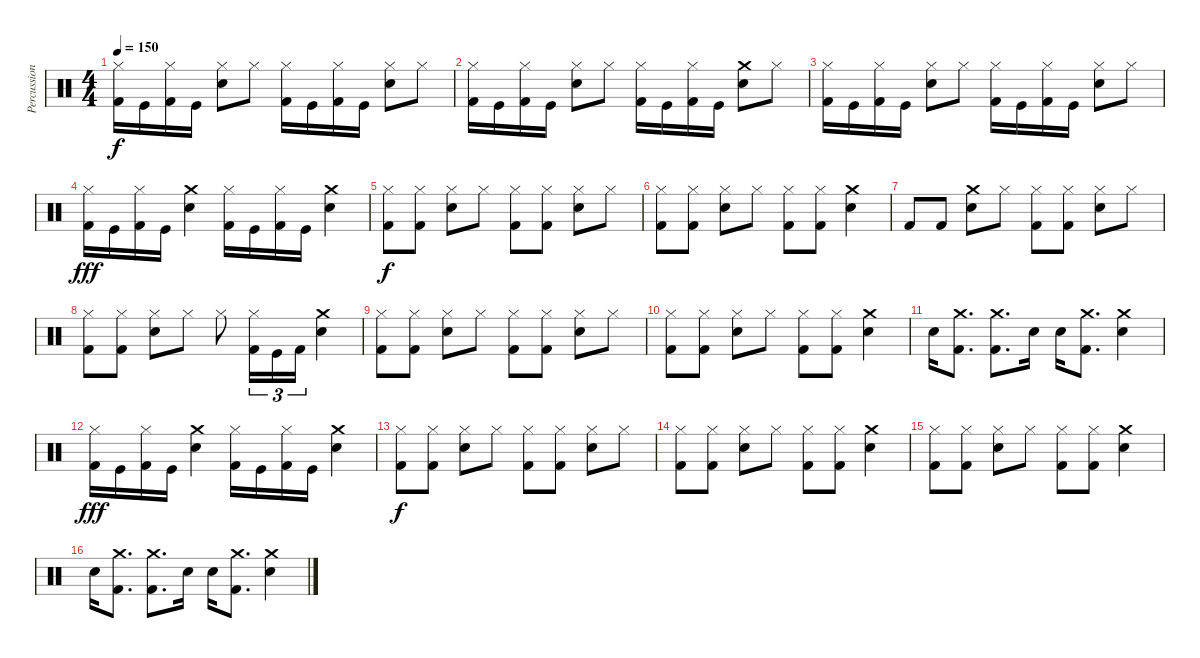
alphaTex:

\track ("Percussion" "Percussion") {instrument percussion}
\staff {score}
\articulation defaults
\ts (4 4)
\tempo 150
\clef neutral
\ks c
("Hi-Hat (closed)" "Kick (hit) 2").16{dy f} "Kick (hit)".16 ("Hi-Hat (closed)" "Kick (hit) 2").16 "Kick (hit)".16 ("Snare (hit) 2" "Hi-Hat (closed)").8 "Hi-Hat (closed)".8 ("Hi-Hat (closed)" "Kick (hit) 2").16 "Kick (hit)".16 ("Hi-Hat (closed)" "Kick (hit) 2").16 "Kick (hit)".16 ("Snare (hit) 2" "Hi-Hat (closed)").8 "Hi-Hat (closed)".8 |
("Hi-Hat (closed)" "Kick (hit) 2").16 "Kick (hit)".16 ("Hi-Hat (closed)" "Kick (hit) 2").16 "Kick (hit)".16 ("Snare (hit) 2" "Hi-Hat (closed)").8 "Hi-Hat (closed)".8 ("Hi-Hat (closed)" "Kick (hit) 2").16 "Kick (hit)".16 ("Hi-Hat (closed)" "Kick (hit) 2").16 "Kick (hit)".16 ("Snare (hit) 2" "Crash medium (hit)").8 "Hi-Hat (closed)".8 |
("Hi-Hat (closed)" "Kick (hit) 2").16 "Kick (hit)".16 ("Hi-Hat (closed)" "Kick (hit) 2").16 "Kick (hit)".16 ("Snare (hit) 2" "Hi-Hat (closed)").8 "Hi-Hat (closed)".8 ("Hi-Hat (closed)" "Kick (hit) 2").16 "Kick (hit)".16 ("Hi-Hat (closed)" "Kick (hit) 2").16 "Kick (hit)".16 ("Snare (hit) 2" "Hi-Hat (closed)").8 "Hi-Hat (closed)".8 |
("Kick (hit) 2" "Hi-Hat (closed)").16{dy fff} "Kick (hit)".16 ("Kick (hit) 2" "Hi-Hat (closed)").16 "Kick (hit)".16 ("Snare (hit) 2" "Crash medium (hit)").4 ("Kick (hit) 2" "Hi-Hat (closed)").16 "Kick (hit)".16 ("Kick (hit) 2" "Hi-Hat (closed)").16 "Kick (hit)".16 ("Crash medium (hit)" "Snare (hit) 2").4 |
("Hi-Hat (closed)" "Kick (hit) 2").8{dy f} ("Hi-Hat (closed)" "Kick (hit) 2").8 ("Snare (hit) 2" "Hi-Hat (closed)").8 "Hi-Hat (closed)".8 ("Hi-Hat (closed)" "Kick (hit) 2").8 ("Hi-Hat (closed)" "Kick (hit) 2").8 ("Snare (hit) 2" "Hi-Hat (closed)").8 "Hi-Hat (closed)".8 |
("Hi-Hat (closed)" "Kick (hit) 2").8 ("Hi-Hat (closed)" "Kick (hit) 2").8 ("Snare (hit) 2" "Hi-Hat (closed)").8 "Hi-Hat (closed)".8 ("Hi-Hat (closed)" "Kick (hit) 2").8 ("Hi-Hat (closed)" "Kick (hit) 2").8 ("Snare (hit) 2" "Crash medium (hit)").4 |
"Kick (hit) 2".8 "Kick (hit) 2".8 ("Crash medium (hit)" "Snare (hit) 2").8 "Hi-Hat (closed)".8 ("Hi-Hat (closed)" "Kick (hit) 2").8 ("Hi-Hat (closed)" "Kick (hit) 2").8 ("Snare (hit) 2" "Hi-Hat (closed)").8 "Hi-Hat (closed)".8 |
("Hi-Hat (closed)" "Kick (hit) 2").8 ("Hi-Hat (closed)" "Kick (hit) 2").8 ("Snare (hit) 2" "Hi-Hat (closed)").8 "Hi-Hat (closed)".8 "Hi-Hat (closed)".8 ("Hi-Hat (closed)" "Kick (hit) 2").16{tu (3 2)} "Kick (hit)".16{tu (3 2)} "Kick (hit) 2".16{tu (3 2)} ("Snare (hit) 2" "Crash medium (hit)").4 |
("Hi-Hat (closed)" "Kick (hit) 2").8 ("Hi-Hat (closed)" "Kick (hit) 2").8 ("Snare (hit) 2" "Hi-Hat (closed)").8 "Hi-Hat (closed)".8 ("Hi-Hat (closed)" "Kick (hit) 2").8 ("Hi-Hat (closed)" "Kick (hit) 2").8 ("Snare (hit) 2" "Hi-Hat (closed)").8 "Hi-Hat (closed)".8 |
("Hi-Hat (closed)" "Kick (hit) 2").8 ("Hi-Hat (closed)" "Kick (hit) 2").8 ("Snare (hit) 2" "Hi-Hat (closed)").8 "Hi-Hat (closed)".8 ("Hi-Hat (closed)" "Kick (hit) 2").8 ("Hi-Hat (closed)" "Kick (hit) 2").8 ("Snare (hit) 2" "Crash medium (hit)").4 |
"Snare (hit) 2".16 ("Kick (hit) 2" "Crash medium (hit)").8{d} ("Kick (hit) 2" "Crash medium (hit)").8{d} "Snare (hit) 2".16 "Snare (hit) 2".16 ("Kick (hit) 2" "Crash medium (hit)").8{d} ("Crash medium (hit)" "Snare (hit) 2").4 |
("Kick (hit) 2" "Hi-Hat (closed)").16{dy fff} "Kick (hit)".16 ("Kick (hit) 2" "Hi-Hat (closed)").16 "Kick (hit)".16 ("Snare (hit) 2" "Crash medium (hit)").4 ("Kick (hit) 2" "Hi-Hat (closed)").16 "Kick (hit)".16 ("Kick (hit) 2" "Hi-Hat (closed)").16 "Kick (hit)".16 ("Crash medium (hit)" "Snare (hit) 2").4 |
("Hi-Hat (closed)" "Kick (hit) 2").8{dy f} ("Hi-Hat (closed)" "Kick (hit) 2").8 ("Snare (hit) 2" "Hi-Hat (closed)").8 "Hi-Hat (closed)".8 ("Hi-Hat (closed)" "Kick (hit) 2").8 ("Hi-Hat (closed)" "Kick (hit) 2").8 ("Snare (hit) 2" "Hi-Hat (closed)").8 "Hi-Hat (closed)".8 |
("Hi-Hat (closed)" "Kick (hit) 2").8 ("Hi-Hat (closed)" "Kick (hit) 2").8 ("Snare (hit) 2" "Hi-Hat (closed)").8 "Hi-Hat (closed)".8 ("Hi-Hat (closed)" "Kick (hit) 2").8 ("Hi-Hat (closed)" "Kick (hit) 2").8 ("Snare (hit) 2" "Crash medium (hit)").4 |
("Hi-Hat (closed)" "Kick (hit) 2").8 ("Hi-Hat (closed)" "Kick (hit) 2").8 ("Snare (hit) 2" "Hi-Hat (closed)").8 "Hi-Hat (closed)".8 ("Hi-Hat (closed)" "Kick (hit) 2").8 ("Hi-Hat (closed)" "Kick (hit) 2").8 ("Snare (hit) 2" "Crash medium (hit)").4 |
"Snare (hit) 2".16 ("Kick (hit) 2" "Crash medium (hit)").8{d} ("Kick (hit) 2" "Crash medium (hit)").8{d} "Snare (hit) 2".16 "Snare (hit) 2".16 ("Kick (hit) 2" "Crash medium (hit)").8{d} ("Crash medium (hit)" "Snare (hit) 2").4
